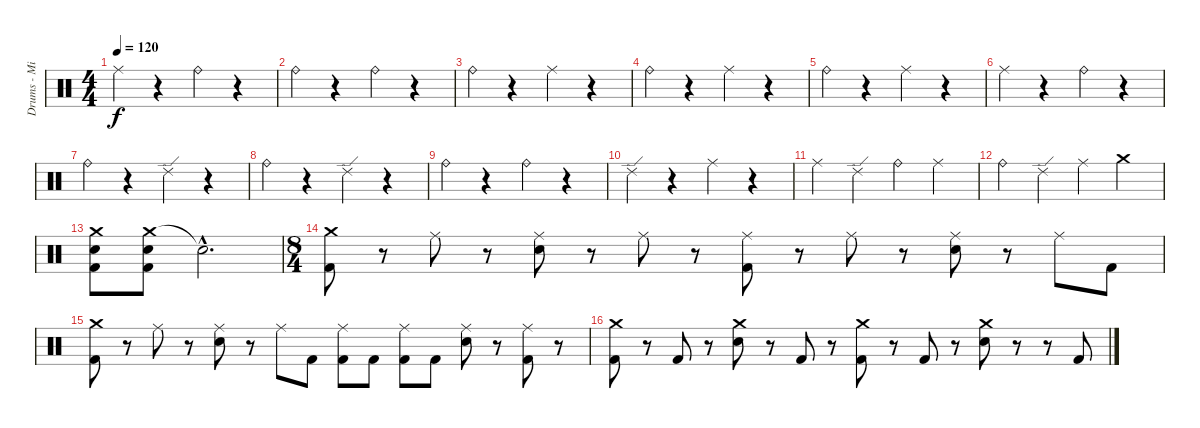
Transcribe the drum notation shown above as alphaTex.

\track ("Drums - Mike Dee" "Drums - Mi") {instrument percussion}
\staff {score}
\articulation defaults
\ts (4 4)
\tempo 120
\clef neutral
\ks c "Ride (middle)".4{dy f}
r.4 "Ride (bell)".4 r.4 |
"Ride (bell)".4 r.4 "Ride (bell)".4 r.4 |
"Ride (bell)".4 r.4 "Ride (middle)".4 r.4 |
"Ride (bell)".4 r.4 "Ride (middle)".4 r.4 |
"Ride (bell)".4 r.4 "Ride (middle)".4 r.4 |
"Ride (middle)".4 r.4 "Ride (bell)".4 r.4 |
"Ride (bell)".4 r.4 "Ride (edge) 2".4 r.4 |
"Ride (bell)".4 r.4 "Ride (edge) 2".4 r.4 |
"Ride (bell)".4 r.4 "Ride (bell)".4 r.4 |
"Ride (edge) 2".4 r.4 "Ride (middle)".4 r.4 |
"Ride (middle)".4 "Ride (edge) 2".4 "Ride (bell)".4 "Ride (middle)".4 |
"Ride (bell)".4 "Ride (edge) 2".4 "Ride (middle)".4 "Crash medium (hit)".4 |
("Crash medium (hit)" "Snare (hit) 2" "Kick (hit) 2").8 ("Crash medium (hit)" "Snare (hit) 2" "Kick (hit) 2").8 "Snare (hit)"{hac t}.2{d} |
\ts (8 4)
("Crash medium (hit)" "Kick (hit) 2").8 r.8 "Ride (middle)".8 r.8 ("Ride (middle)" "Snare (hit) 2").8 r.8 "Ride (middle)".8 r.8 ("Ride (middle)" "Kick (hit) 2").8 r.8 "Ride (middle)".8 r.8 ("Ride (middle)" "Snare (hit) 2").8 r.8 "Ride (middle)".8 "Kick (hit) 2".8 |
("Crash medium (hit)" "Kick (hit) 2").8 r.8 "Ride (middle)".8 r.8 ("Ride (middle)" "Snare (hit) 2").8 r.8 "Ride (middle)".8 "Kick (hit) 2".8 ("Ride (middle)" "Kick (hit) 2").8 "Kick (hit) 2".8 ("Ride (middle)" "Kick (hit) 2").8 "Kick (hit) 2".8 ("Ride (middle)" "Snare (hit) 2").8 r.8 ("Ride (middle)" "Kick (hit) 2").8 r.8 |
("Crash medium (hit)" "Kick (hit) 2").8 r.8 "Kick (hit) 2".8 r.8 ("Crash medium (hit)" "Snare (hit) 2").8 r.8 "Kick (hit) 2".8 r.8 ("Crash medium (hit)" "Kick (hit) 2").8 r.8 "Kick (hit) 2".8 r.8 ("Crash medium (hit)" "Snare (hit) 2").8 r.8 r.8 "Kick (hit) 2".8
